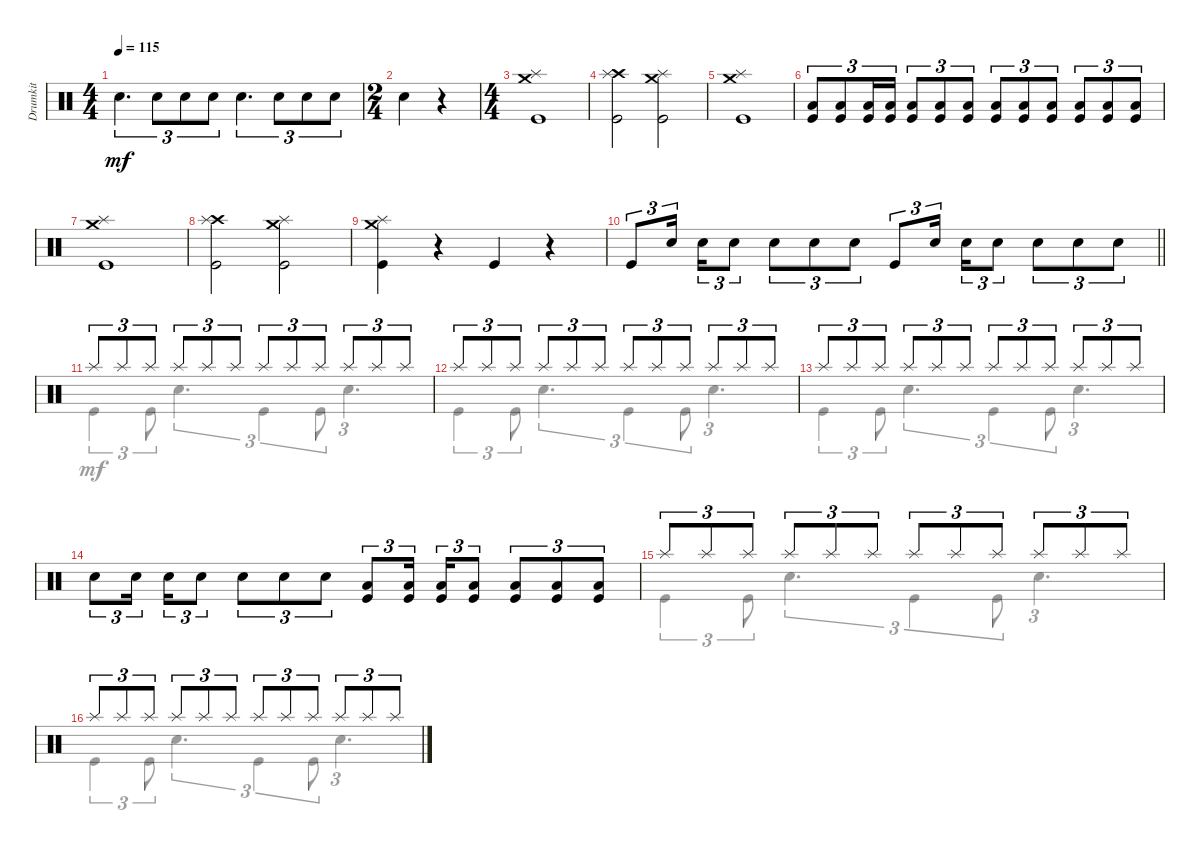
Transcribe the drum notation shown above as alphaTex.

\track ("Drumkit" "Drumkit") {instrument percussion}
\staff {score}
\articulation defaults
\voice
\ts (4 4)
\tempo 115
\clef neutral
\ks c "Snare (hit) 2".4{d tu (3 2) dy mf} "Snare (hit) 2".8{tu (3 2)} "Snare (hit) 2".8{tu (3 2)} "Snare (hit) 2".8{tu (3 2)} "Snare (hit) 2".4{d tu (3 2)} "Snare (hit) 2".8{tu (3 2)} "Snare (hit) 2".8{tu (3 2)} "Snare (hit) 2".8{tu (3 2)}
|
\ts (2 4)
"Snare (hit) 2".4 r.4 |
\ts (4 4)
("Kick (hit)" "Splash (hit)" "Crash medium (hit)").1 |
("Kick (hit)" "Crash high (hit)" "Splash (hit)").2 ("Kick (hit)" "Splash (hit)" "Crash medium (hit)").2 |
("Kick (hit)" "Splash (hit)" "Crash medium (hit)").1 |
("Low Tom (hit)" "Kick (hit)").8{tu (3 2)} ("Kick (hit)" "Low Tom (hit)").8{tu (3 2)} ("Low Tom (hit)" "Kick (hit)").16{tu (3 2)} ("Low Tom (hit)" "Kick (hit)").16{tu (3 2)} ("Low Tom (hit)" "Kick (hit)").8{tu (3 2)} ("Low Tom (hit)" "Kick (hit)").8{tu (3 2)} ("Low Tom (hit)" "Kick (hit)").8{tu (3 2)} ("Low Tom (hit)" "Kick (hit)").8{tu (3 2)} ("Low Tom (hit)" "Kick (hit)").8{tu (3 2)} ("Low Tom (hit)" "Kick (hit)").8{tu (3 2)} ("Low Tom (hit)" "Kick (hit)").8{tu (3 2)} ("Low Tom (hit)" "Kick (hit)").8{tu (3 2)} ("Low Tom (hit)" "Kick (hit)").8{tu (3 2)} |
("Kick (hit)" "Splash (hit)" "Crash medium (hit)").1 |
("Kick (hit)" "Crash high (hit)" "Splash (hit)").2 ("Kick (hit)" "Splash (hit)" "Crash medium (hit)").2 |
("Kick (hit)" "Splash (hit)" "Crash medium (hit)").4 r.4 "Kick (hit)".4 r.4 |
\barLineRight lightlight "Kick (hit)".8{tu (3 2)} "Snare (hit) 2".16{tu (3 2)} "Snare (hit) 2".16{tu (3 2)} "Snare (hit) 2".8{tu (3 2)} "Snare (hit) 2".8{tu (3 2)} "Snare (hit) 2".8{tu (3 2)} "Snare (hit) 2".8{tu (3 2)} "Kick (hit)".8{tu (3 2)} "Snare (hit) 2".16{tu (3 2)} "Snare (hit) 2".16{tu (3 2)} "Snare (hit) 2".8{tu (3 2)} "Snare (hit) 2".8{tu (3 2)} "Snare (hit) 2".8{tu (3 2)} "Snare (hit) 2".8{tu (3 2)}
|
"Splash (hit)".8{tu (3 2)} "Splash (hit)".8{tu (3 2)} "Splash (hit)".8{tu (3 2)} "Splash (hit)".8{tu (3 2)} "Splash (hit)".8{tu (3 2)} "Splash (hit)".8{tu (3 2)} "Splash (hit)".8{tu (3 2)} "Splash (hit)".8{tu (3 2)} "Splash (hit)".8{tu (3 2)} "Splash (hit)".8{tu (3 2)} "Splash (hit)".8{tu (3 2)} "Splash (hit)".8{tu (3 2)} |
"Splash (hit)".8{tu (3 2)} "Splash (hit)".8{tu (3 2)} "Splash (hit)".8{tu (3 2)} "Splash (hit)".8{tu (3 2)} "Splash (hit)".8{tu (3 2)} "Splash (hit)".8{tu (3 2)} "Splash (hit)".8{tu (3 2)} "Splash (hit)".8{tu (3 2)} "Splash (hit)".8{tu (3 2)} "Splash (hit)".8{tu (3 2)} "Splash (hit)".8{tu (3 2)} "Splash (hit)".8{tu (3 2)} |
"Splash (hit)".8{tu (3 2)} "Splash (hit)".8{tu (3 2)} "Splash (hit)".8{tu (3 2)} "Splash (hit)".8{tu (3 2)} "Splash (hit)".8{tu (3 2)} "Splash (hit)".8{tu (3 2)} "Splash (hit)".8{tu (3 2)} "Splash (hit)".8{tu (3 2)} "Splash (hit)".8{tu (3 2)} "Splash (hit)".8{tu (3 2)} "Splash (hit)".8{tu (3 2)} "Splash (hit)".8{tu (3 2)} |
"Snare (hit) 2".8{tu (3 2)} "Snare (hit) 2".16{tu (3 2)} "Snare (hit) 2".16{tu (3 2)} "Snare (hit) 2".8{tu (3 2)} "Snare (hit) 2".8{tu (3 2)} "Snare (hit) 2".8{tu (3 2)} "Snare (hit) 2".8{tu (3 2)} ("Low Tom (hit)" "Kick (hit)").8{tu (3 2)} ("Low Tom (hit)" "Kick (hit)").16{tu (3 2)} ("Low Tom (hit)" "Kick (hit)").16{tu (3 2)} ("Low Tom (hit)" "Kick (hit)").8{tu (3 2)} ("Low Tom (hit)" "Kick (hit)").8{tu (3 2)} ("Low Tom (hit)" "Kick (hit)").8{tu (3 2)} ("Low Tom (hit)" "Kick (hit)").8{tu (3 2)} |
"Splash (hit)".8{tu (3 2)} "Splash (hit)".8{tu (3 2)} "Splash (hit)".8{tu (3 2)} "Splash (hit)".8{tu (3 2)} "Splash (hit)".8{tu (3 2)} "Splash (hit)".8{tu (3 2)} "Splash (hit)".8{tu (3 2)} "Splash (hit)".8{tu (3 2)} "Splash (hit)".8{tu (3 2)} "Splash (hit)".8{tu (3 2)} "Splash (hit)".8{tu (3 2)} "Splash (hit)".8{tu (3 2)} |
"Splash (hit)".8{tu (3 2)} "Splash (hit)".8{tu (3 2)} "Splash (hit)".8{tu (3 2)} "Splash (hit)".8{tu (3 2)} "Splash (hit)".8{tu (3 2)} "Splash (hit)".8{tu (3 2)} "Splash (hit)".8{tu (3 2)} "Splash (hit)".8{tu (3 2)} "Splash (hit)".8{tu (3 2)} "Splash (hit)".8{tu (3 2)} "Splash (hit)".8{tu (3 2)} "Splash (hit)".8{tu (3 2)}
\voice
\clef neutral
\ottava regular
\simile none
\ks c
|
|
|
|
|
|
|
|
|
\barLineRight lightlight
|
"Kick (hit)".4{tu (3 2)} "Kick (hit)".8{tu (3 2)} "Snare (hit) 2".4{d tu (3 2)} "Kick (hit)".4{tu (3 2)} "Kick (hit)".8{tu (3 2)} "Snare (hit) 2".4{d tu (3 2)} |
"Kick (hit)".4{tu (3 2)} "Kick (hit)".8{tu (3 2)} "Snare (hit) 2".4{d tu (3 2)} "Kick (hit)".4{tu (3 2)} "Kick (hit)".8{tu (3 2)} "Snare (hit) 2".4{d tu (3 2)} |
"Kick (hit)".4{tu (3 2)} "Kick (hit)".8{tu (3 2)} "Snare (hit) 2".4{d tu (3 2)} "Kick (hit)".4{tu (3 2)} "Kick (hit)".8{tu (3 2)} "Snare (hit) 2".4{d tu (3 2)} |
|
"Kick (hit)".4{tu (3 2)} "Kick (hit)".8{tu (3 2)} "Snare (hit) 2".4{d tu (3 2)} "Kick (hit)".4{tu (3 2)} "Kick (hit)".8{tu (3 2)} "Snare (hit) 2".4{d tu (3 2)} |
"Kick (hit)".4{tu (3 2)} "Kick (hit)".8{tu (3 2)} "Snare (hit) 2".4{d tu (3 2)} "Kick (hit)".4{tu (3 2)} "Kick (hit)".8{tu (3 2)} "Snare (hit) 2".4{d tu (3 2)}
